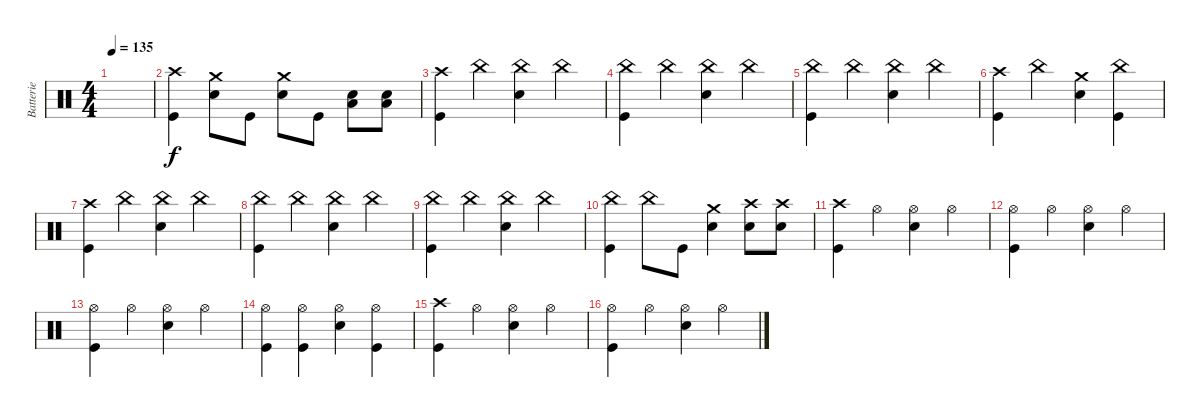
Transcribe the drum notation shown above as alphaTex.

\track ("Batterie" "Batterie") {instrument percussion}
\staff {score}
\articulation defaults
\ts (4 4)
\tempo 135
\clef neutral
\ks c
|
("Crash high (hit)" "Kick (hit)").4 ("Crash medium (hit)" "Electric Snare (hit)").8 "Kick (hit)".8 ("Crash medium (hit)" "Electric Snare (hit)").8 "Kick (hit)".8 ("Electric Snare (hit)" "Low Floor Tom (hit)").8 ("Electric Snare (hit)" "Low Floor Tom (hit)").8 |
("Crash high (hit)" "Kick (hit)").4 "China (hit)".4 ("China (hit)" "Electric Snare (hit)").4 "China (hit)".4 |
("China (hit)" "Kick (hit)").4 "China (hit)".4 ("China (hit)" "Electric Snare (hit)").4 "China (hit)".4 |
("China (hit)" "Kick (hit)").4 "China (hit)".4 ("China (hit)" "Electric Snare (hit)").4 "China (hit)".4 |
("Crash high (hit)" "Kick (hit)").4 "China (hit)".4 ("Crash medium (hit)" "Electric Snare (hit)").4 ("China (hit)" "Kick (hit)").4 |
("Crash high (hit)" "Kick (hit)").4 "China (hit)".4 ("China (hit)" "Electric Snare (hit)").4 "China (hit)".4 |
("China (hit)" "Kick (hit)").4 "China (hit)".4 ("China (hit)" "Electric Snare (hit)").4 "China (hit)".4 |
("China (hit)" "Kick (hit)").4 "China (hit)".4 ("China (hit)" "Electric Snare (hit)").4 "China (hit)".4 |
("China (hit)" "Kick (hit)").4 "China (hit)".8 "Kick (hit)".8 ("Crash medium (hit)" "Electric Snare (hit)").4 ("Crash high (hit)" "Electric Snare (hit)").8 ("Crash high (hit)" "Electric Snare (hit)").8 |
("Crash high (hit)" "Kick (hit)").4 "Hi-Hat (open)".4 ("Hi-Hat (open)" "Electric Snare (hit)").4 "Hi-Hat (open)".4 |
("Hi-Hat (open)" "Kick (hit)").4 "Hi-Hat (open)".4 ("Hi-Hat (open)" "Electric Snare (hit)").4 "Hi-Hat (open)".4 |
("Hi-Hat (open)" "Kick (hit)").4 "Hi-Hat (open)".4 ("Hi-Hat (open)" "Electric Snare (hit)").4 "Hi-Hat (open)".4 |
("Hi-Hat (open)" "Kick (hit)").4 ("Hi-Hat (open)" "Kick (hit)").4 ("Hi-Hat (open)" "Electric Snare (hit)").4 ("Hi-Hat (open)" "Kick (hit)").4 |
("Crash high (hit)" "Kick (hit)").4 "Hi-Hat (open)".4 ("Hi-Hat (open)" "Electric Snare (hit)").4 "Hi-Hat (open)".4 |
("Hi-Hat (open)" "Kick (hit)").4 "Hi-Hat (open)".4 ("Hi-Hat (open)" "Electric Snare (hit)").4 "Hi-Hat (open)".4
